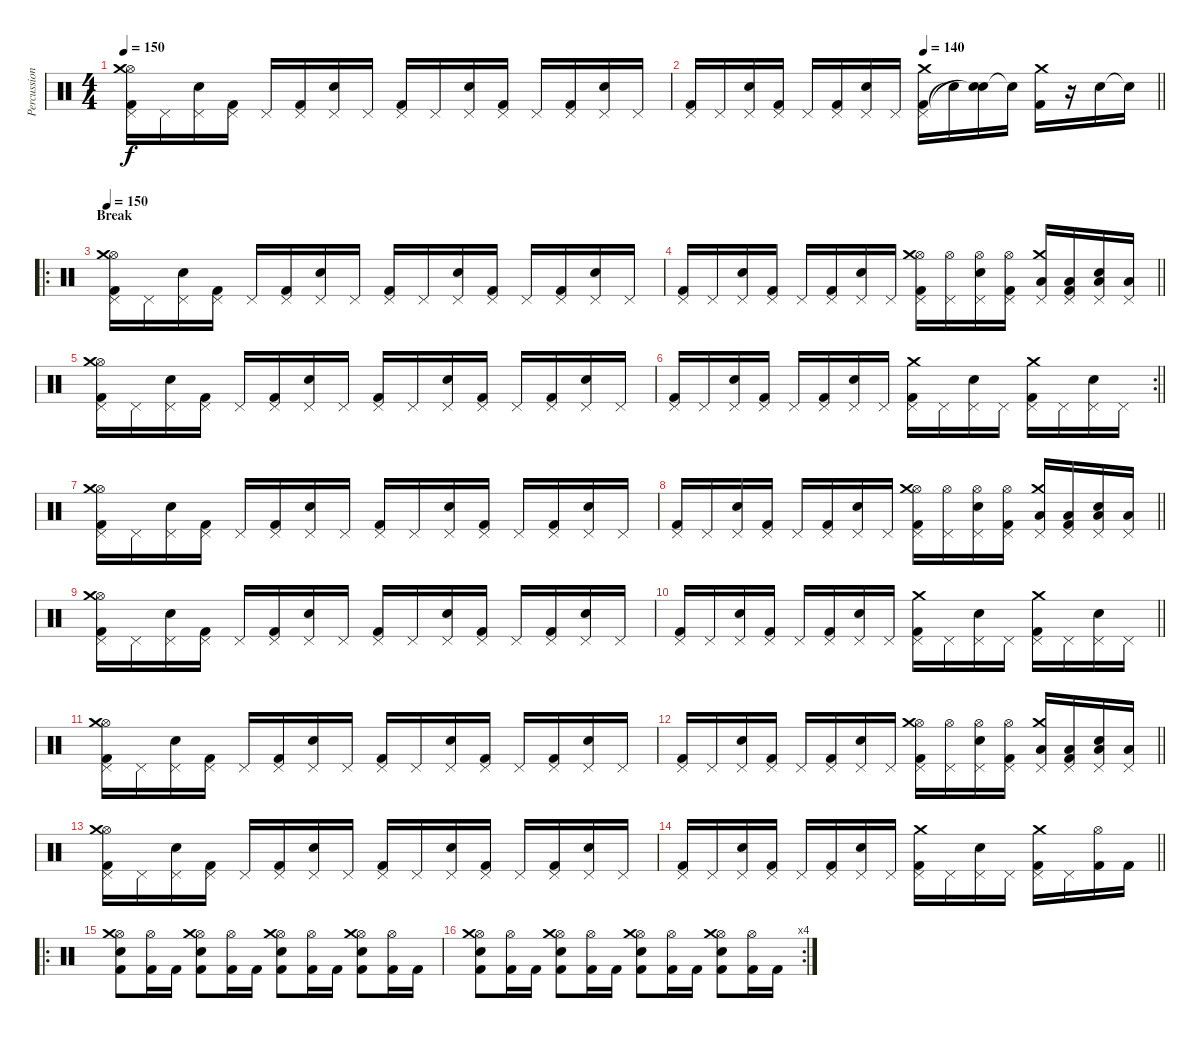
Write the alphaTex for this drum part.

\track ("Percussion" "Percussion") {instrument percussion}
\staff {score}
\articulation defaults
\ts (4 4)
\tempo 150
\clef neutral
\ks c
("Pedal Hi-Hat (hit)" "Kick (hit) 2" "Hi-Hat (open)" "Crash medium (hit)").16{dy f} "Pedal Hi-Hat (hit)".16 ("Pedal Hi-Hat (hit)" "Snare (hit) 2").16 ("Pedal Hi-Hat (hit)" "Kick (hit) 2").16 "Pedal Hi-Hat (hit)".16 ("Pedal Hi-Hat (hit)" "Kick (hit) 2").16 ("Pedal Hi-Hat (hit)" "Snare (hit) 2").16 "Pedal Hi-Hat (hit)".16 ("Pedal Hi-Hat (hit)" "Kick (hit) 2").16 "Pedal Hi-Hat (hit)".16 ("Pedal Hi-Hat (hit)" "Snare (hit) 2").16 ("Pedal Hi-Hat (hit)" "Kick (hit) 2").16 "Pedal Hi-Hat (hit)".16 ("Pedal Hi-Hat (hit)" "Kick (hit) 2").16 ("Pedal Hi-Hat (hit)" "Snare (hit) 2").16 "Pedal Hi-Hat (hit)".16 |
\tempo (140 0.5)
\barLineRight lightlight
("Pedal Hi-Hat (hit)" "Kick (hit) 2").16 "Pedal Hi-Hat (hit)".16 ("Pedal Hi-Hat (hit)" "Snare (hit) 2").16 ("Pedal Hi-Hat (hit)" "Kick (hit) 2").16 "Pedal Hi-Hat (hit)".16 ("Pedal Hi-Hat (hit)" "Kick (hit) 2").16 ("Pedal Hi-Hat (hit)" "Snare (hit) 2").16 "Pedal Hi-Hat (hit)".16 ("Pedal Hi-Hat (hit)" "Kick (hit) 2" "Crash medium (hit)").16 "Snare (hit)"{t}.16 ("Snare (hit) 2" "Snare (hit)"{t}).16 "Snare (hit)"{t}.16 ("Kick (hit) 2" "Crash medium (hit)").16 r.16 "Snare (hit) 2".16 "Snare (hit)"{t}.16 |
\ro
\section ("" "Break")
\tempo 150
("Pedal Hi-Hat (hit)" "Kick (hit) 2" "Hi-Hat (open)" "Crash medium (hit)").16 "Pedal Hi-Hat (hit)".16 ("Pedal Hi-Hat (hit)" "Snare (hit) 2").16 ("Pedal Hi-Hat (hit)" "Kick (hit) 2").16 "Pedal Hi-Hat (hit)".16 ("Pedal Hi-Hat (hit)" "Kick (hit) 2").16 ("Pedal Hi-Hat (hit)" "Snare (hit) 2").16 "Pedal Hi-Hat (hit)".16 ("Pedal Hi-Hat (hit)" "Kick (hit) 2").16 "Pedal Hi-Hat (hit)".16 ("Pedal Hi-Hat (hit)" "Snare (hit) 2").16 ("Pedal Hi-Hat (hit)" "Kick (hit) 2").16 "Pedal Hi-Hat (hit)".16 ("Pedal Hi-Hat (hit)" "Kick (hit) 2").16 ("Pedal Hi-Hat (hit)" "Snare (hit) 2").16 "Pedal Hi-Hat (hit)".16 |
\barLineRight lightlight
("Pedal Hi-Hat (hit)" "Kick (hit) 2").16 "Pedal Hi-Hat (hit)".16 ("Pedal Hi-Hat (hit)" "Snare (hit) 2").16 ("Pedal Hi-Hat (hit)" "Kick (hit) 2").16 "Pedal Hi-Hat (hit)".16 ("Pedal Hi-Hat (hit)" "Kick (hit) 2").16 ("Pedal Hi-Hat (hit)" "Snare (hit) 2").16 "Pedal Hi-Hat (hit)".16 ("Pedal Hi-Hat (hit)" "Kick (hit) 2" "Hi-Hat (open)" "Crash medium (hit)").16 ("Pedal Hi-Hat (hit)" "Hi-Hat (open)").16 ("Pedal Hi-Hat (hit)" "Snare (hit) 2" "Hi-Hat (open)").16 ("Pedal Hi-Hat (hit)" "Kick (hit) 2" "Hi-Hat (open)").16 ("Pedal Hi-Hat (hit)" "Low Tom (hit)" "Crash medium (hit)").16 ("Pedal Hi-Hat (hit)" "Kick (hit) 2" "Low Tom (hit)").16 ("Pedal Hi-Hat (hit)" "Snare (hit) 2" "Low Tom (hit)").16 ("Pedal Hi-Hat (hit)" "Low Tom (hit)").16 |
("Pedal Hi-Hat (hit)" "Kick (hit) 2" "Hi-Hat (open)" "Crash medium (hit)").16 "Pedal Hi-Hat (hit)".16 ("Pedal Hi-Hat (hit)" "Snare (hit) 2").16 ("Pedal Hi-Hat (hit)" "Kick (hit) 2").16 "Pedal Hi-Hat (hit)".16 ("Pedal Hi-Hat (hit)" "Kick (hit) 2").16 ("Pedal Hi-Hat (hit)" "Snare (hit) 2").16 "Pedal Hi-Hat (hit)".16 ("Pedal Hi-Hat (hit)" "Kick (hit) 2").16 "Pedal Hi-Hat (hit)".16 ("Pedal Hi-Hat (hit)" "Snare (hit) 2").16 ("Pedal Hi-Hat (hit)" "Kick (hit) 2").16 "Pedal Hi-Hat (hit)".16 ("Pedal Hi-Hat (hit)" "Kick (hit) 2").16 ("Pedal Hi-Hat (hit)" "Snare (hit) 2").16 "Pedal Hi-Hat (hit)".16 |
\rc 2
\barLineRight lightlight
("Pedal Hi-Hat (hit)" "Kick (hit) 2").16 "Pedal Hi-Hat (hit)".16 ("Pedal Hi-Hat (hit)" "Snare (hit) 2").16 ("Pedal Hi-Hat (hit)" "Kick (hit) 2").16 "Pedal Hi-Hat (hit)".16 ("Pedal Hi-Hat (hit)" "Kick (hit) 2").16 ("Pedal Hi-Hat (hit)" "Snare (hit) 2").16 "Pedal Hi-Hat (hit)".16 ("Pedal Hi-Hat (hit)" "Kick (hit) 2" "Crash medium (hit)").16 "Pedal Hi-Hat (hit)".16 ("Pedal Hi-Hat (hit)" "Snare (hit) 2").16 "Pedal Hi-Hat (hit)".16 ("Pedal Hi-Hat (hit)" "Kick (hit) 2" "Crash medium (hit)").16 "Pedal Hi-Hat (hit)".16 ("Pedal Hi-Hat (hit)" "Snare (hit) 2").16 "Pedal Hi-Hat (hit)".16 |
("Pedal Hi-Hat (hit)" "Kick (hit) 2" "Hi-Hat (open)" "Crash medium (hit)").16 "Pedal Hi-Hat (hit)".16 ("Pedal Hi-Hat (hit)" "Snare (hit) 2").16 ("Pedal Hi-Hat (hit)" "Kick (hit) 2").16 "Pedal Hi-Hat (hit)".16 ("Pedal Hi-Hat (hit)" "Kick (hit) 2").16 ("Pedal Hi-Hat (hit)" "Snare (hit) 2").16 "Pedal Hi-Hat (hit)".16 ("Pedal Hi-Hat (hit)" "Kick (hit) 2").16 "Pedal Hi-Hat (hit)".16 ("Pedal Hi-Hat (hit)" "Snare (hit) 2").16 ("Pedal Hi-Hat (hit)" "Kick (hit) 2").16 "Pedal Hi-Hat (hit)".16 ("Pedal Hi-Hat (hit)" "Kick (hit) 2").16 ("Pedal Hi-Hat (hit)" "Snare (hit) 2").16 "Pedal Hi-Hat (hit)".16 |
\barLineRight lightlight
("Pedal Hi-Hat (hit)" "Kick (hit) 2").16 "Pedal Hi-Hat (hit)".16 ("Pedal Hi-Hat (hit)" "Snare (hit) 2").16 ("Pedal Hi-Hat (hit)" "Kick (hit) 2").16 "Pedal Hi-Hat (hit)".16 ("Pedal Hi-Hat (hit)" "Kick (hit) 2").16 ("Pedal Hi-Hat (hit)" "Snare (hit) 2").16 "Pedal Hi-Hat (hit)".16 ("Pedal Hi-Hat (hit)" "Kick (hit) 2" "Hi-Hat (open)" "Crash medium (hit)").16 ("Pedal Hi-Hat (hit)" "Hi-Hat (open)").16 ("Pedal Hi-Hat (hit)" "Snare (hit) 2" "Hi-Hat (open)").16 ("Pedal Hi-Hat (hit)" "Kick (hit) 2" "Hi-Hat (open)").16 ("Pedal Hi-Hat (hit)" "Low Tom (hit)" "Crash medium (hit)").16 ("Pedal Hi-Hat (hit)" "Kick (hit) 2" "Low Tom (hit)").16 ("Pedal Hi-Hat (hit)" "Snare (hit) 2" "Low Tom (hit)").16 ("Pedal Hi-Hat (hit)" "Low Tom (hit)").16 |
("Pedal Hi-Hat (hit)" "Kick (hit) 2" "Hi-Hat (open)" "Crash medium (hit)").16 "Pedal Hi-Hat (hit)".16 ("Pedal Hi-Hat (hit)" "Snare (hit) 2").16 ("Pedal Hi-Hat (hit)" "Kick (hit) 2").16 "Pedal Hi-Hat (hit)".16 ("Pedal Hi-Hat (hit)" "Kick (hit) 2").16 ("Pedal Hi-Hat (hit)" "Snare (hit) 2").16 "Pedal Hi-Hat (hit)".16 ("Pedal Hi-Hat (hit)" "Kick (hit) 2").16 "Pedal Hi-Hat (hit)".16 ("Pedal Hi-Hat (hit)" "Snare (hit) 2").16 ("Pedal Hi-Hat (hit)" "Kick (hit) 2").16 "Pedal Hi-Hat (hit)".16 ("Pedal Hi-Hat (hit)" "Kick (hit) 2").16 ("Pedal Hi-Hat (hit)" "Snare (hit) 2").16 "Pedal Hi-Hat (hit)".16 |
\barLineRight lightlight
("Pedal Hi-Hat (hit)" "Kick (hit) 2").16 "Pedal Hi-Hat (hit)".16 ("Pedal Hi-Hat (hit)" "Snare (hit) 2").16 ("Pedal Hi-Hat (hit)" "Kick (hit) 2").16 "Pedal Hi-Hat (hit)".16 ("Pedal Hi-Hat (hit)" "Kick (hit) 2").16 ("Pedal Hi-Hat (hit)" "Snare (hit) 2").16 "Pedal Hi-Hat (hit)".16 ("Pedal Hi-Hat (hit)" "Kick (hit) 2" "Crash medium (hit)").16 "Pedal Hi-Hat (hit)".16 ("Pedal Hi-Hat (hit)" "Snare (hit) 2").16 "Pedal Hi-Hat (hit)".16 ("Pedal Hi-Hat (hit)" "Kick (hit) 2" "Crash medium (hit)").16 "Pedal Hi-Hat (hit)".16 ("Pedal Hi-Hat (hit)" "Snare (hit) 2").16 "Pedal Hi-Hat (hit)".16 |
("Pedal Hi-Hat (hit)" "Kick (hit) 2" "Hi-Hat (open)" "Crash medium (hit)").16 "Pedal Hi-Hat (hit)".16 ("Pedal Hi-Hat (hit)" "Snare (hit) 2").16 ("Pedal Hi-Hat (hit)" "Kick (hit) 2").16 "Pedal Hi-Hat (hit)".16 ("Pedal Hi-Hat (hit)" "Kick (hit) 2").16 ("Pedal Hi-Hat (hit)" "Snare (hit) 2").16 "Pedal Hi-Hat (hit)".16 ("Pedal Hi-Hat (hit)" "Kick (hit) 2").16 "Pedal Hi-Hat (hit)".16 ("Pedal Hi-Hat (hit)" "Snare (hit) 2").16 ("Pedal Hi-Hat (hit)" "Kick (hit) 2").16 "Pedal Hi-Hat (hit)".16 ("Pedal Hi-Hat (hit)" "Kick (hit) 2").16 ("Pedal Hi-Hat (hit)" "Snare (hit) 2").16 "Pedal Hi-Hat (hit)".16 |
\barLineRight lightlight
("Pedal Hi-Hat (hit)" "Kick (hit) 2").16 "Pedal Hi-Hat (hit)".16 ("Pedal Hi-Hat (hit)" "Snare (hit) 2").16 ("Pedal Hi-Hat (hit)" "Kick (hit) 2").16 "Pedal Hi-Hat (hit)".16 ("Pedal Hi-Hat (hit)" "Kick (hit) 2").16 ("Pedal Hi-Hat (hit)" "Snare (hit) 2").16 "Pedal Hi-Hat (hit)".16 ("Pedal Hi-Hat (hit)" "Kick (hit) 2" "Hi-Hat (open)" "Crash medium (hit)").16 ("Pedal Hi-Hat (hit)" "Hi-Hat (open)").16 ("Pedal Hi-Hat (hit)" "Snare (hit) 2" "Hi-Hat (open)").16 ("Pedal Hi-Hat (hit)" "Kick (hit) 2" "Hi-Hat (open)").16 ("Pedal Hi-Hat (hit)" "Low Tom (hit)" "Crash medium (hit)").16 ("Pedal Hi-Hat (hit)" "Kick (hit) 2" "Low Tom (hit)").16 ("Pedal Hi-Hat (hit)" "Snare (hit) 2" "Low Tom (hit)").16 ("Pedal Hi-Hat (hit)" "Low Tom (hit)").16 |
("Pedal Hi-Hat (hit)" "Kick (hit) 2" "Hi-Hat (open)" "Crash medium (hit)").16 "Pedal Hi-Hat (hit)".16 ("Pedal Hi-Hat (hit)" "Snare (hit) 2").16 ("Pedal Hi-Hat (hit)" "Kick (hit) 2").16 "Pedal Hi-Hat (hit)".16 ("Pedal Hi-Hat (hit)" "Kick (hit) 2").16 ("Pedal Hi-Hat (hit)" "Snare (hit) 2").16 "Pedal Hi-Hat (hit)".16 ("Pedal Hi-Hat (hit)" "Kick (hit) 2").16 "Pedal Hi-Hat (hit)".16 ("Pedal Hi-Hat (hit)" "Snare (hit) 2").16 ("Pedal Hi-Hat (hit)" "Kick (hit) 2").16 "Pedal Hi-Hat (hit)".16 ("Pedal Hi-Hat (hit)" "Kick (hit) 2").16 ("Pedal Hi-Hat (hit)" "Snare (hit) 2").16 "Pedal Hi-Hat (hit)".16 |
\barLineRight lightlight
("Pedal Hi-Hat (hit)" "Kick (hit) 2").16 "Pedal Hi-Hat (hit)".16 ("Pedal Hi-Hat (hit)" "Snare (hit) 2").16 ("Pedal Hi-Hat (hit)" "Kick (hit) 2").16 "Pedal Hi-Hat (hit)".16 ("Pedal Hi-Hat (hit)" "Kick (hit) 2").16 ("Pedal Hi-Hat (hit)" "Snare (hit) 2").16 "Pedal Hi-Hat (hit)".16 ("Pedal Hi-Hat (hit)" "Kick (hit) 2" "Crash medium (hit)").16 "Pedal Hi-Hat (hit)".16 ("Pedal Hi-Hat (hit)" "Snare (hit) 2").16 "Pedal Hi-Hat (hit)".16 ("Pedal Hi-Hat (hit)" "Kick (hit) 2" "Crash medium (hit)").16 "Pedal Hi-Hat (hit)".16 ("Hi-Hat (open)" "Kick (hit) 2").16 "Kick (hit) 2".16 |
\ro
("Hi-Hat (open)" "Kick (hit) 2" "Snare (hit) 2" "Crash medium (hit)").8 ("Hi-Hat (open)" "Kick (hit) 2").16 "Kick (hit) 2".16 ("Hi-Hat (open)" "Kick (hit) 2" "Snare (hit) 2" "Crash medium (hit)").8 ("Hi-Hat (open)" "Kick (hit) 2").16 "Kick (hit) 2".16 ("Hi-Hat (open)" "Kick (hit) 2" "Snare (hit) 2" "Crash medium (hit)").8 ("Hi-Hat (open)" "Kick (hit) 2").16 "Kick (hit) 2".16 ("Hi-Hat (open)" "Kick (hit) 2" "Snare (hit) 2" "Crash medium (hit)").8 ("Hi-Hat (open)" "Kick (hit) 2").16 "Kick (hit) 2".16 |
\rc 4
("Hi-Hat (open)" "Kick (hit) 2" "Snare (hit) 2" "Crash medium (hit)").8 ("Hi-Hat (open)" "Kick (hit) 2").16 "Kick (hit) 2".16 ("Hi-Hat (open)" "Kick (hit) 2" "Snare (hit) 2" "Crash medium (hit)").8 ("Hi-Hat (open)" "Kick (hit) 2").16 "Kick (hit) 2".16 ("Hi-Hat (open)" "Kick (hit) 2" "Snare (hit) 2" "Crash medium (hit)").8 ("Hi-Hat (open)" "Kick (hit) 2").16 "Kick (hit) 2".16 ("Hi-Hat (open)" "Kick (hit) 2" "Snare (hit) 2" "Crash medium (hit)").8 ("Hi-Hat (open)" "Kick (hit) 2").16 "Kick (hit) 2".16
